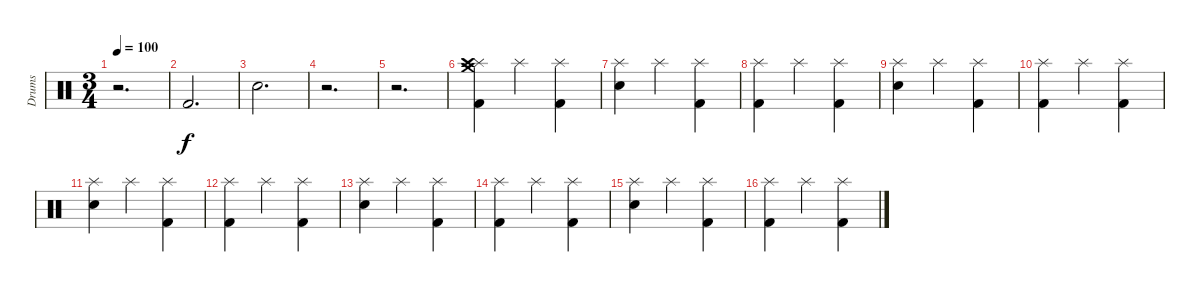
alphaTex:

\track ("Drums" "Drums") {instrument percussion}
\staff {score}
\articulation defaults
\ts (3 4)
\tempo 100
\clef neutral
\ks c
r.2{d dy f} |
"Kick (hit) 2".2{d} |
"Electric Snare (hit)".2{d} |
r.2{d} |
r.2{d} |
("Splash (hit)" "Crash high (hit)" "Crash medium (hit)" "Kick (hit) 2").4 "Splash (hit)".4 ("Splash (hit)" "Kick (hit) 2").4 |
("Splash (hit)" "Electric Snare (hit)").4 "Splash (hit)".4 ("Splash (hit)" "Kick (hit) 2").4 |
("Splash (hit)" "Kick (hit) 2").4 "Splash (hit)".4 ("Splash (hit)" "Kick (hit) 2").4 |
("Splash (hit)" "Electric Snare (hit)").4 "Splash (hit)".4 ("Splash (hit)" "Kick (hit) 2").4 |
("Splash (hit)" "Kick (hit) 2").4 "Splash (hit)".4 ("Splash (hit)" "Kick (hit) 2").4 |
("Splash (hit)" "Electric Snare (hit)").4 "Splash (hit)".4 ("Splash (hit)" "Kick (hit) 2").4 |
("Splash (hit)" "Kick (hit) 2").4 "Splash (hit)".4 ("Splash (hit)" "Kick (hit) 2").4 |
("Splash (hit)" "Electric Snare (hit)").4 "Splash (hit)".4 ("Splash (hit)" "Kick (hit) 2").4 |
("Splash (hit)" "Kick (hit) 2").4 "Splash (hit)".4 ("Splash (hit)" "Kick (hit) 2").4 |
("Splash (hit)" "Electric Snare (hit)").4 "Splash (hit)".4 ("Splash (hit)" "Kick (hit) 2").4 |
("Splash (hit)" "Kick (hit) 2").4 "Splash (hit)".4 ("Splash (hit)" "Kick (hit) 2").4
